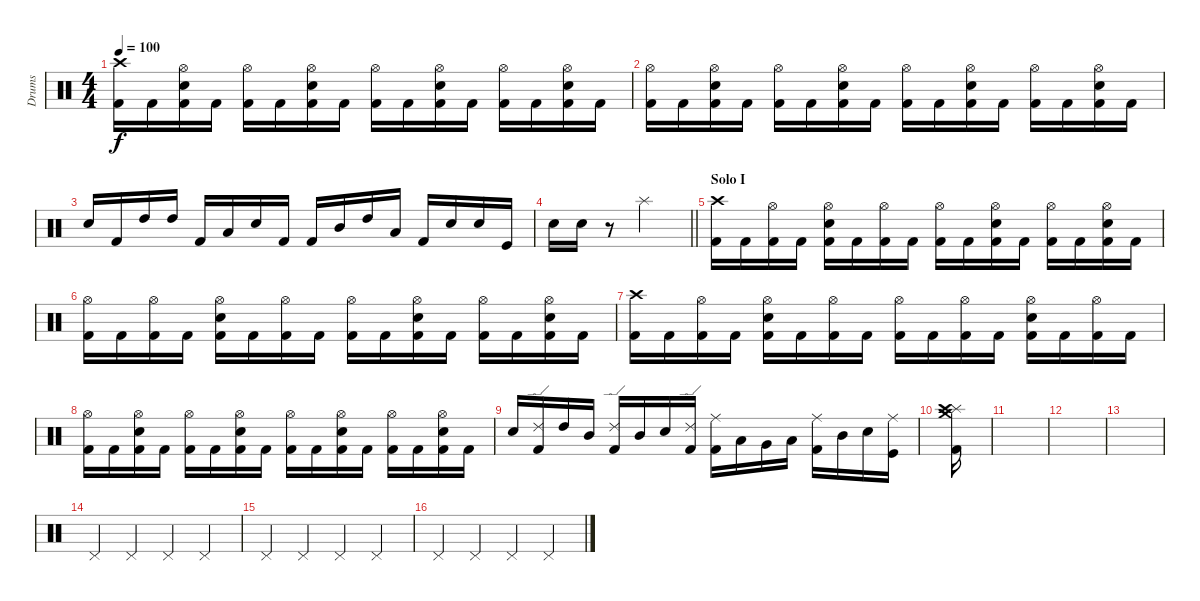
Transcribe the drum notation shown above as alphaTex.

\track ("Drums" "Drums") {instrument percussion}
\staff {score}
\articulation defaults
\ts (4 4)
\tempo 100
\clef neutral
\ks c
("Crash high (hit)" "Kick (hit) 2").16{dy f} "Kick (hit) 2".16 ("Hi-Hat (open)" "Snare (hit) 2" "Kick (hit) 2").16 "Kick (hit) 2".16 ("Hi-Hat (open)" "Kick (hit) 2").16 "Kick (hit) 2".16 ("Hi-Hat (open)" "Snare (hit) 2" "Kick (hit) 2").16 "Kick (hit) 2".16 ("Hi-Hat (open)" "Kick (hit) 2").16 "Kick (hit) 2".16 ("Hi-Hat (open)" "Snare (hit) 2" "Kick (hit) 2").16 "Kick (hit) 2".16 ("Hi-Hat (open)" "Kick (hit) 2").16 "Kick (hit) 2".16 ("Hi-Hat (open)" "Snare (hit) 2" "Kick (hit) 2").16 "Kick (hit) 2".16 |
("Hi-Hat (open)" "Kick (hit) 2").16 "Kick (hit) 2".16 ("Hi-Hat (open)" "Snare (hit) 2" "Kick (hit) 2").16 "Kick (hit) 2".16 ("Hi-Hat (open)" "Kick (hit) 2").16 "Kick (hit) 2".16 ("Hi-Hat (open)" "Snare (hit) 2" "Kick (hit) 2").16 "Kick (hit) 2".16 ("Hi-Hat (open)" "Kick (hit) 2").16 "Kick (hit) 2".16 ("Hi-Hat (open)" "Snare (hit) 2" "Kick (hit) 2").16 "Kick (hit) 2".16 ("Hi-Hat (open)" "Kick (hit) 2").16 "Kick (hit) 2".16 ("Hi-Hat (open)" "Snare (hit) 2" "Kick (hit) 2").16 "Kick (hit) 2".16 |
"Snare (hit) 2".16 "Kick (hit) 2".16 "High Tom (hit)".16 "High Tom (hit)".16 "Kick (hit) 2".16 "Low Tom (hit)".16 "Snare (hit) 2".16 "Kick (hit) 2".16 "Kick (hit) 2".16 "Mid Tom (hit)".16 "High Tom (hit)".16 "Low Tom (hit)".16 "Kick (hit) 2".16 "Snare (hit) 2".16 "Snare (hit) 2".16 "Kick (hit)".16 |
\barLineRight lightlight "Snare (hit) 2".16 "Snare (hit) 2".16
r.8 "Splash (hit)".2 |
\section ("" "Solo I")
("Crash high (hit)" "Kick (hit) 2").16 "Kick (hit) 2".16 ("Hi-Hat (open)" "Kick (hit) 2").16 "Kick (hit) 2".16 ("Hi-Hat (open)" "Snare (hit) 2" "Kick (hit) 2").16 "Kick (hit) 2".16 ("Hi-Hat (open)" "Kick (hit) 2").16 "Kick (hit) 2".16 ("Hi-Hat (open)" "Kick (hit) 2").16 "Kick (hit) 2".16 ("Hi-Hat (open)" "Snare (hit) 2" "Kick (hit) 2").16 "Kick (hit) 2".16 ("Hi-Hat (open)" "Kick (hit) 2").16 "Kick (hit) 2".16 ("Hi-Hat (open)" "Snare (hit) 2" "Kick (hit) 2").16 "Kick (hit) 2".16 |
("Hi-Hat (open)" "Kick (hit) 2").16 "Kick (hit) 2".16 ("Hi-Hat (open)" "Kick (hit) 2").16 "Kick (hit) 2".16 ("Hi-Hat (open)" "Snare (hit) 2" "Kick (hit) 2").16 "Kick (hit) 2".16 ("Hi-Hat (open)" "Kick (hit) 2").16 "Kick (hit) 2".16 ("Hi-Hat (open)" "Kick (hit) 2").16 "Kick (hit) 2".16 ("Hi-Hat (open)" "Snare (hit) 2" "Kick (hit) 2").16 "Kick (hit) 2".16 ("Hi-Hat (open)" "Kick (hit) 2").16 "Kick (hit) 2".16 ("Hi-Hat (open)" "Snare (hit) 2" "Kick (hit) 2").16 "Kick (hit) 2".16 |
("Crash high (hit)" "Kick (hit) 2").16 "Kick (hit) 2".16 ("Hi-Hat (open)" "Kick (hit) 2").16 "Kick (hit) 2".16 ("Hi-Hat (open)" "Snare (hit) 2" "Kick (hit) 2").16 "Kick (hit) 2".16 ("Hi-Hat (open)" "Kick (hit) 2").16 "Kick (hit) 2".16 ("Hi-Hat (open)" "Kick (hit) 2").16 "Kick (hit) 2".16 ("Hi-Hat (open)" "Kick (hit) 2").16 "Kick (hit) 2".16 ("Hi-Hat (open)" "Snare (hit) 2" "Kick (hit) 2").16 "Kick (hit) 2".16 ("Hi-Hat (open)" "Kick (hit) 2").16 "Kick (hit) 2".16 |
("Hi-Hat (open)" "Kick (hit) 2").16 "Kick (hit) 2".16 ("Hi-Hat (open)" "Snare (hit) 2" "Kick (hit) 2").16 "Kick (hit) 2".16 ("Hi-Hat (open)" "Kick (hit) 2").16 "Kick (hit) 2".16 ("Hi-Hat (open)" "Snare (hit) 2" "Kick (hit) 2").16 "Kick (hit) 2".16 ("Hi-Hat (open)" "Kick (hit) 2").16 "Kick (hit) 2".16 ("Hi-Hat (open)" "Snare (hit) 2" "Kick (hit) 2").16 "Kick (hit) 2".16 ("Hi-Hat (open)" "Kick (hit) 2").16 "Kick (hit) 2".16 ("Hi-Hat (open)" "Snare (hit) 2" "Kick (hit) 2").16 "Kick (hit) 2".16 |
"Snare (hit) 2".16 ("Ride (edge) 2" "Kick (hit) 2").16 "High Tom (hit)".16 "Mid Tom (hit)".16 ("Ride (edge) 2" "Kick (hit) 2").16 "Mid Tom (hit)".16 "Snare (hit) 2".16 ("Ride (edge) 2" "Kick (hit) 2").16 ("Ride (middle)" "Kick (hit) 2").16 "Low Tom (hit)".16 "Very Low Tom (hit)".16 "Low Tom (hit)".16 ("Ride (middle)" "Kick (hit) 2").16 "Mid Tom (hit)".16 "Snare (hit) 2".16 ("Ride (middle)" "Kick (hit)").16 |
("Splash (hit)" "Crash medium (hit)" "Crash high (hit)" "Kick (hit) 2").16 |
|
|
|
"Pedal Hi-Hat (hit)".4 "Pedal Hi-Hat (hit)".4 "Pedal Hi-Hat (hit)".4 "Pedal Hi-Hat (hit)".4 |
"Pedal Hi-Hat (hit)".4 "Pedal Hi-Hat (hit)".4 "Pedal Hi-Hat (hit)".4 "Pedal Hi-Hat (hit)".4 |
"Pedal Hi-Hat (hit)".4 "Pedal Hi-Hat (hit)".4 "Pedal Hi-Hat (hit)".4 "Pedal Hi-Hat (hit)".4
